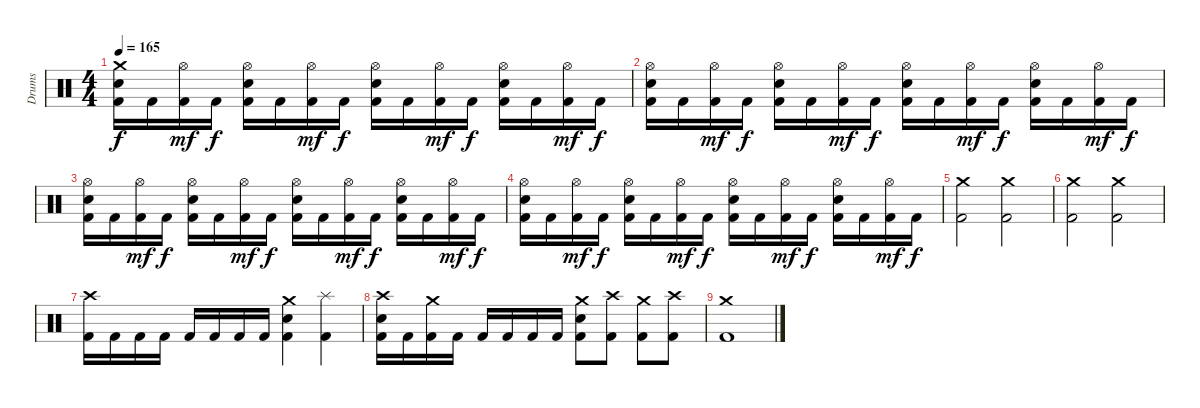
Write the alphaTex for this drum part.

\track ("Drums" "Drums") {instrument percussion}
\staff {score}
\articulation defaults
\ts (4 4)
\tempo 165
\clef neutral
\ks c
("Kick (hit) 2" "Electric Snare (hit)" "Crash medium (hit)").16{dy f} "Kick (hit) 2".16 ("Kick (hit) 2" "Hi-Hat (open)").16{dy mf} "Kick (hit) 2".16{dy f} ("Kick (hit) 2" "Electric Snare (hit)" "Hi-Hat (open)").16 "Kick (hit) 2".16 ("Kick (hit) 2" "Hi-Hat (open)").16{dy mf} "Kick (hit) 2".16{dy f} ("Kick (hit) 2" "Electric Snare (hit)" "Hi-Hat (open)").16 "Kick (hit) 2".16 ("Kick (hit) 2" "Hi-Hat (open)").16{dy mf} "Kick (hit) 2".16{dy f} ("Kick (hit) 2" "Electric Snare (hit)" "Hi-Hat (open)").16 "Kick (hit) 2".16 ("Kick (hit) 2" "Hi-Hat (open)").16{dy mf} "Kick (hit) 2".16{dy f} |
("Kick (hit) 2" "Electric Snare (hit)" "Hi-Hat (open)").16 "Kick (hit) 2".16 ("Kick (hit) 2" "Hi-Hat (open)").16{dy mf} "Kick (hit) 2".16{dy f} ("Kick (hit) 2" "Electric Snare (hit)" "Hi-Hat (open)").16 "Kick (hit) 2".16 ("Kick (hit) 2" "Hi-Hat (open)").16{dy mf} "Kick (hit) 2".16{dy f} ("Kick (hit) 2" "Electric Snare (hit)" "Hi-Hat (open)").16 "Kick (hit) 2".16 ("Kick (hit) 2" "Hi-Hat (open)").16{dy mf} "Kick (hit) 2".16{dy f} ("Kick (hit) 2" "Electric Snare (hit)" "Hi-Hat (open)").16 "Kick (hit) 2".16 ("Kick (hit) 2" "Hi-Hat (open)").16{dy mf} "Kick (hit) 2".16{dy f} |
("Kick (hit) 2" "Electric Snare (hit)" "Hi-Hat (open)").16 "Kick (hit) 2".16 ("Kick (hit) 2" "Hi-Hat (open)").16{dy mf} "Kick (hit) 2".16{dy f} ("Kick (hit) 2" "Electric Snare (hit)" "Hi-Hat (open)").16 "Kick (hit) 2".16 ("Kick (hit) 2" "Hi-Hat (open)").16{dy mf} "Kick (hit) 2".16{dy f} ("Kick (hit) 2" "Electric Snare (hit)" "Hi-Hat (open)").16 "Kick (hit) 2".16 ("Kick (hit) 2" "Hi-Hat (open)").16{dy mf} "Kick (hit) 2".16{dy f} ("Kick (hit) 2" "Electric Snare (hit)" "Hi-Hat (open)").16 "Kick (hit) 2".16 ("Kick (hit) 2" "Hi-Hat (open)").16{dy mf} "Kick (hit) 2".16{dy f} |
("Kick (hit) 2" "Electric Snare (hit)" "Hi-Hat (open)").16 "Kick (hit) 2".16 ("Kick (hit) 2" "Hi-Hat (open)").16{dy mf} "Kick (hit) 2".16{dy f} ("Kick (hit) 2" "Electric Snare (hit)" "Hi-Hat (open)").16 "Kick (hit) 2".16 ("Kick (hit) 2" "Hi-Hat (open)").16{dy mf} "Kick (hit) 2".16{dy f} ("Kick (hit) 2" "Electric Snare (hit)" "Hi-Hat (open)").16 "Kick (hit) 2".16 ("Kick (hit) 2" "Hi-Hat (open)").16{dy mf} "Kick (hit) 2".16{dy f} ("Kick (hit) 2" "Electric Snare (hit)" "Hi-Hat (open)").16 "Kick (hit) 2".16 ("Kick (hit) 2" "Hi-Hat (open)").16{dy mf} "Kick (hit) 2".16{dy f} |
("Kick (hit) 2" "Crash medium (hit)").2 ("Kick (hit) 2" "Crash medium (hit)").2 |
("Kick (hit) 2" "Crash medium (hit)").2 ("Kick (hit) 2" "Crash medium (hit)").2 |
("Kick (hit) 2" "Crash high (hit)").16 "Kick (hit) 2".16 "Kick (hit) 2".16 "Kick (hit) 2".16 "Kick (hit) 2".16 "Kick (hit) 2".16 "Kick (hit) 2".16 "Kick (hit) 2".16 ("Kick (hit) 2" "Electric Snare (hit)" "Crash medium (hit)").4 ("Kick (hit) 2" "Splash (hit)").4 |
("Kick (hit) 2" "Electric Snare (hit)" "Crash high (hit)").16 "Kick (hit) 2".16 ("Kick (hit) 2" "Crash medium (hit)").16 "Kick (hit) 2".16 "Kick (hit) 2".16 "Kick (hit) 2".16 "Kick (hit) 2".16 "Kick (hit) 2".16 ("Kick (hit) 2" "Electric Snare (hit)" "Crash medium (hit)").8 ("Kick (hit) 2" "Crash high (hit)").8 ("Kick (hit) 2" "Crash medium (hit)").8 ("Kick (hit) 2" "Crash high (hit)").8 |
("Kick (hit) 2" "Crash medium (hit)").1
